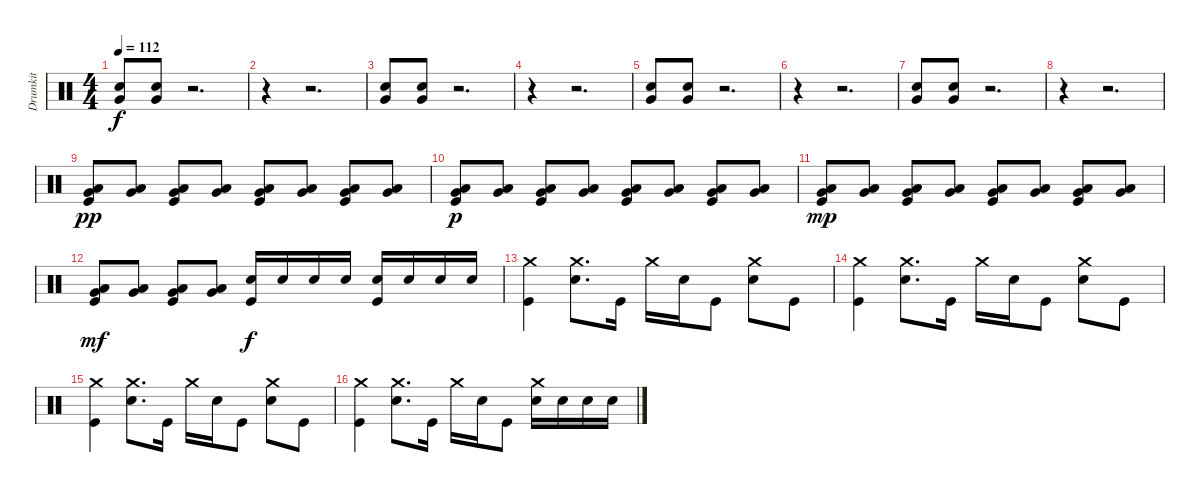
\track ("Drumkit" "Drumkit") {instrument percussion}
\staff {score}
\articulation defaults
\ts (4 4)
\tempo 112
\clef neutral
\ks c
("Very Low Tom (hit)" "Snare (hit) 2").8{dy f} ("Very Low Tom (hit)" "Snare (hit) 2").8 r.2{d} |
r.4 r.2{d} |
("Very Low Tom (hit)" "Snare (hit) 2").8 ("Very Low Tom (hit)" "Snare (hit) 2").8 r.2{d} |
r.4 r.2{d} |
("Very Low Tom (hit)" "Snare (hit) 2").8 ("Very Low Tom (hit)" "Snare (hit) 2").8 r.2{d} |
r.4 r.2{d} |
("Very Low Tom (hit)" "Snare (hit) 2").8 ("Very Low Tom (hit)" "Snare (hit) 2").8 r.2{d} |
r.4 r.2{d} |
("Very Low Tom (hit)" "Low Tom (hit)" "Kick (hit)").8{dy pp} ("Very Low Tom (hit)" "Low Tom (hit)").8 ("Very Low Tom (hit)" "Low Tom (hit)" "Kick (hit)").8 ("Very Low Tom (hit)" "Low Tom (hit)").8 ("Very Low Tom (hit)" "Low Tom (hit)" "Kick (hit)").8 ("Very Low Tom (hit)" "Low Tom (hit)").8 ("Very Low Tom (hit)" "Low Tom (hit)" "Kick (hit)").8 ("Very Low Tom (hit)" "Low Tom (hit)").8 |
("Very Low Tom (hit)" "Low Tom (hit)" "Kick (hit)").8{dy p} ("Very Low Tom (hit)" "Low Tom (hit)").8 ("Very Low Tom (hit)" "Low Tom (hit)" "Kick (hit)").8 ("Very Low Tom (hit)" "Low Tom (hit)").8 ("Very Low Tom (hit)" "Low Tom (hit)" "Kick (hit)").8 ("Very Low Tom (hit)" "Low Tom (hit)").8 ("Very Low Tom (hit)" "Low Tom (hit)" "Kick (hit)").8 ("Very Low Tom (hit)" "Low Tom (hit)").8 |
("Very Low Tom (hit)" "Low Tom (hit)" "Kick (hit)").8{dy mp} ("Very Low Tom (hit)" "Low Tom (hit)").8 ("Very Low Tom (hit)" "Low Tom (hit)" "Kick (hit)").8 ("Very Low Tom (hit)" "Low Tom (hit)").8 ("Very Low Tom (hit)" "Low Tom (hit)" "Kick (hit)").8 ("Very Low Tom (hit)" "Low Tom (hit)").8 ("Very Low Tom (hit)" "Low Tom (hit)" "Kick (hit)").8 ("Very Low Tom (hit)" "Low Tom (hit)").8 |
("Very Low Tom (hit)" "Low Tom (hit)" "Kick (hit)").8{dy mf} ("Very Low Tom (hit)" "Low Tom (hit)").8 ("Very Low Tom (hit)" "Low Tom (hit)" "Kick (hit)").8 ("Very Low Tom (hit)" "Low Tom (hit)").8 ("Snare (hit) 2" "Kick (hit)").16{dy f} "Snare (hit) 2".16 "Snare (hit) 2".16 "Snare (hit) 2".16 ("Snare (hit) 2" "Kick (hit)").16 "Snare (hit) 2".16 "Snare (hit) 2".16 "Snare (hit) 2".16 |
("Crash medium (hit)" "Kick (hit)").4 ("Crash medium (hit)" "Snare (hit) 2").8{d} "Kick (hit)".16 "Crash medium (hit)".16 "Snare (hit) 2".16 "Kick (hit)".8 ("Crash medium (hit)" "Snare (hit) 2").8 "Kick (hit)".8 |
("Crash medium (hit)" "Kick (hit)").4 ("Crash medium (hit)" "Snare (hit) 2").8{d} "Kick (hit)".16 "Crash medium (hit)".16 "Snare (hit) 2".16 "Kick (hit)".8 ("Crash medium (hit)" "Snare (hit) 2").8 "Kick (hit)".8 |
("Crash medium (hit)" "Kick (hit)").4 ("Crash medium (hit)" "Snare (hit) 2").8{d} "Kick (hit)".16 "Crash medium (hit)".16 "Snare (hit) 2".16 "Kick (hit)".8 ("Crash medium (hit)" "Snare (hit) 2").8 "Kick (hit)".8 |
("Crash medium (hit)" "Kick (hit)").4 ("Crash medium (hit)" "Snare (hit) 2").8{d} "Kick (hit)".16 "Crash medium (hit)".16 "Snare (hit) 2".16 "Kick (hit)".8 ("Crash medium (hit)" "Snare (hit) 2").16 "Snare (hit) 2".16 "Snare (hit) 2".16 "Snare (hit) 2".16
